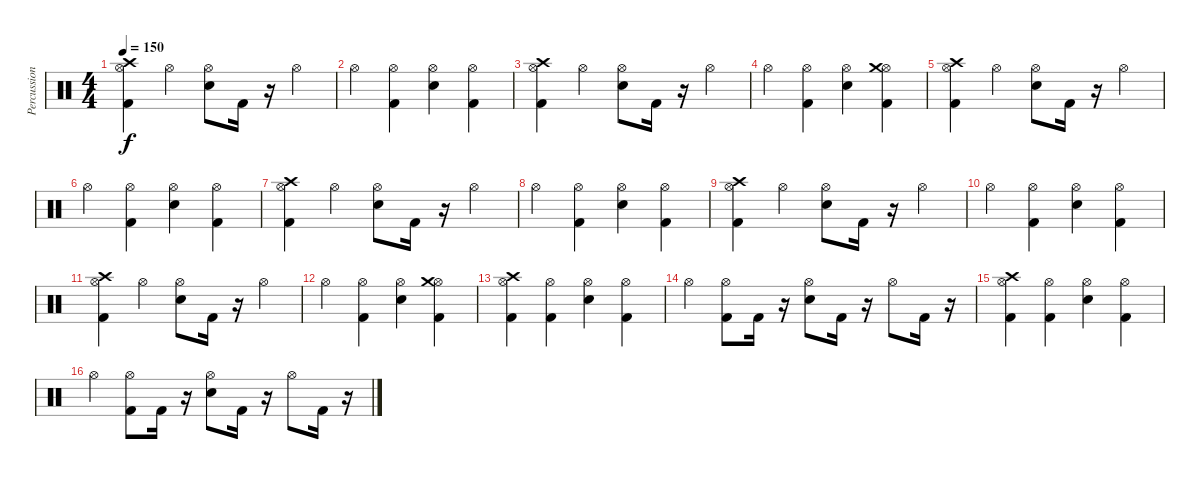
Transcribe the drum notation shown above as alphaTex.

\track ("Percussion" "Percussion") {instrument percussion}
\staff {score}
\articulation defaults
\ts (4 4)
\tempo 150
\clef neutral
\ks c
("Kick (hit) 2" "Hi-Hat (open)" "Crash high (hit)").4{dy f} "Hi-Hat (open)".4 ("Electric Snare (hit)" "Hi-Hat (open)").8 "Kick (hit) 2".16 r.16 "Hi-Hat (open)".4 |
"Hi-Hat (open)".4 ("Kick (hit) 2" "Hi-Hat (open)").4 ("Electric Snare (hit)" "Hi-Hat (open)").4 ("Kick (hit) 2" "Hi-Hat (open)").4 |
("Kick (hit) 2" "Hi-Hat (open)" "Crash high (hit)").4 "Hi-Hat (open)".4 ("Electric Snare (hit)" "Hi-Hat (open)").8 "Kick (hit) 2".16 r.16 "Hi-Hat (open)".4 |
"Hi-Hat (open)".4 ("Kick (hit) 2" "Hi-Hat (open)").4 ("Electric Snare (hit)" "Hi-Hat (open)").4 ("Kick (hit) 2" "Hi-Hat (open)" "Crash medium (hit)").4 |
("Kick (hit) 2" "Hi-Hat (open)" "Crash high (hit)").4 "Hi-Hat (open)".4 ("Electric Snare (hit)" "Hi-Hat (open)").8 "Kick (hit) 2".16 r.16 "Hi-Hat (open)".4 |
"Hi-Hat (open)".4 ("Kick (hit) 2" "Hi-Hat (open)").4 ("Electric Snare (hit)" "Hi-Hat (open)").4 ("Kick (hit) 2" "Hi-Hat (open)").4 |
("Kick (hit) 2" "Hi-Hat (open)" "Crash high (hit)").4 "Hi-Hat (open)".4 ("Electric Snare (hit)" "Hi-Hat (open)").8 "Kick (hit) 2".16 r.16 "Hi-Hat (open)".4 |
"Hi-Hat (open)".4 ("Kick (hit) 2" "Hi-Hat (open)").4 ("Electric Snare (hit)" "Hi-Hat (open)").4 ("Kick (hit) 2" "Hi-Hat (open)").4 |
("Kick (hit) 2" "Hi-Hat (open)" "Crash high (hit)").4 "Hi-Hat (open)".4 ("Electric Snare (hit)" "Hi-Hat (open)").8 "Kick (hit) 2".16 r.16 "Hi-Hat (open)".4 |
"Hi-Hat (open)".4 ("Kick (hit) 2" "Hi-Hat (open)").4 ("Electric Snare (hit)" "Hi-Hat (open)").4 ("Kick (hit) 2" "Hi-Hat (open)").4 |
("Kick (hit) 2" "Hi-Hat (open)" "Crash high (hit)").4 "Hi-Hat (open)".4 ("Electric Snare (hit)" "Hi-Hat (open)").8 "Kick (hit) 2".16 r.16 "Hi-Hat (open)".4 |
"Hi-Hat (open)".4 ("Kick (hit) 2" "Hi-Hat (open)").4 ("Electric Snare (hit)" "Hi-Hat (open)").4 ("Kick (hit) 2" "Hi-Hat (open)" "Crash medium (hit)").4 |
("Kick (hit) 2" "Hi-Hat (open)" "Crash high (hit)").4 ("Kick (hit) 2" "Hi-Hat (open)").4 ("Electric Snare (hit)" "Hi-Hat (open)").4 ("Kick (hit) 2" "Hi-Hat (open)").4 |
"Hi-Hat (open)".4 ("Kick (hit) 2" "Hi-Hat (open)").8 "Kick (hit) 2".16 r.16 ("Electric Snare (hit)" "Hi-Hat (open)").8 "Kick (hit) 2".16 r.16 "Hi-Hat (open)".8 "Kick (hit) 2".16 r.16 |
("Kick (hit) 2" "Hi-Hat (open)" "Crash high (hit)").4 ("Kick (hit) 2" "Hi-Hat (open)").4 ("Electric Snare (hit)" "Hi-Hat (open)").4 ("Kick (hit) 2" "Hi-Hat (open)").4 |
"Hi-Hat (open)".4 ("Kick (hit) 2" "Hi-Hat (open)").8 "Kick (hit) 2".16 r.16 ("Electric Snare (hit)" "Hi-Hat (open)").8 "Kick (hit) 2".16 r.16 "Hi-Hat (open)".8 "Kick (hit) 2".16 r.16
